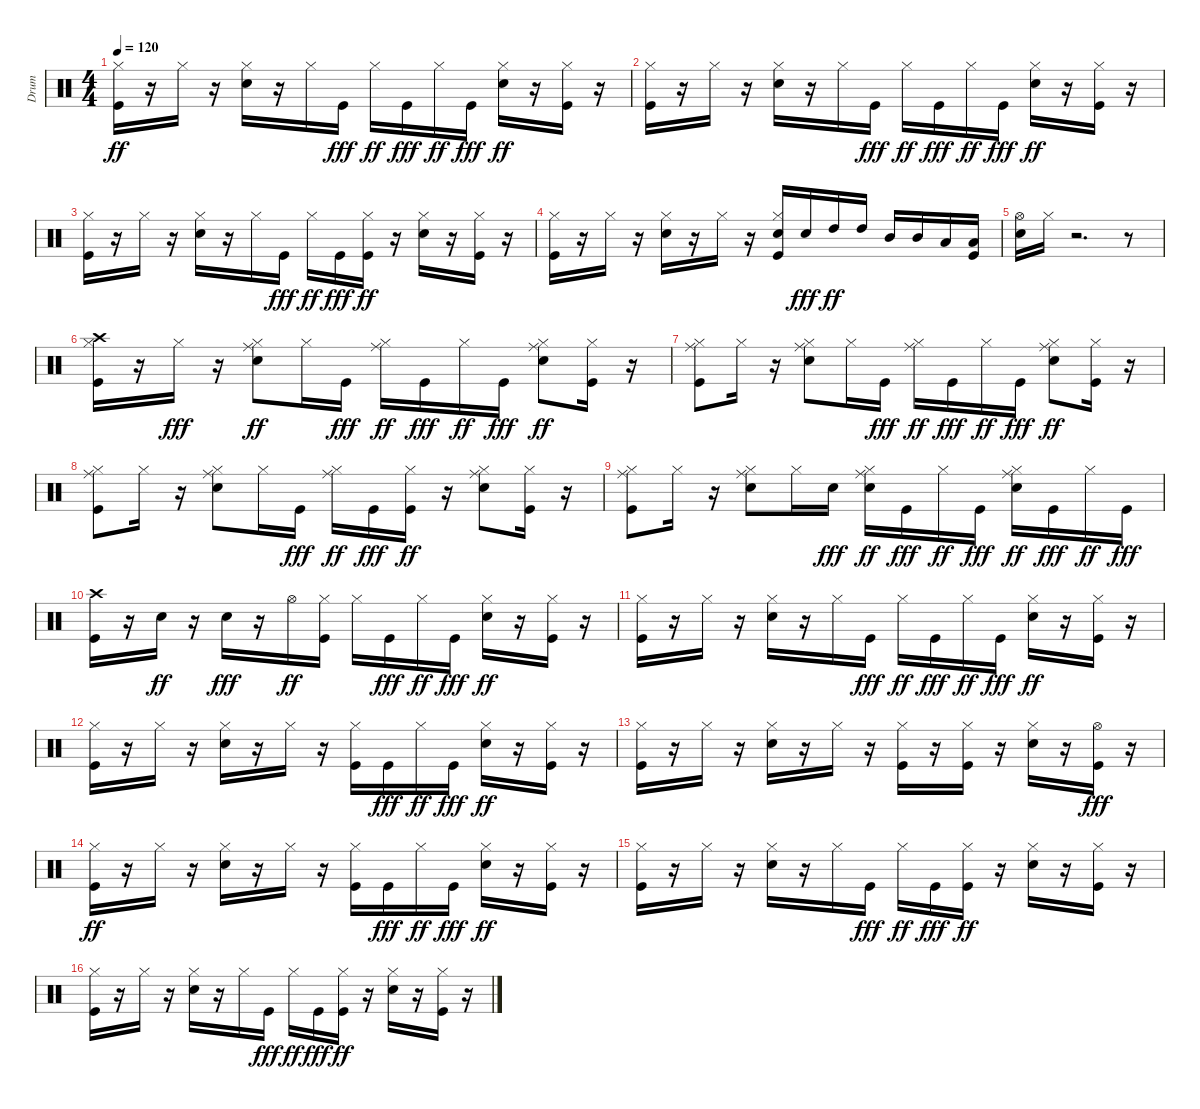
\track ("Drum" "Drum") {instrument percussion}
\staff {score}
\articulation defaults
\ts (4 4)
\tempo 120
\clef neutral
\ks c
("Kick (hit)" "Hi-Hat (closed)").16{dy ff} r.16 "Hi-Hat (closed)".16 r.16 ("Electric Snare (hit)" "Hi-Hat (closed)").16 r.16 "Hi-Hat (closed)".16 "Kick (hit)".16{dy fff} "Hi-Hat (closed)".16{dy ff} "Kick (hit)".16{dy fff} "Hi-Hat (closed)".16{dy ff} "Kick (hit)".16{dy fff} ("Electric Snare (hit)" "Hi-Hat (closed)").16{dy ff} r.16 ("Kick (hit)" "Hi-Hat (closed)").16 r.16 |
("Kick (hit)" "Hi-Hat (closed)").16 r.16 "Hi-Hat (closed)".16 r.16 ("Electric Snare (hit)" "Hi-Hat (closed)").16 r.16 "Hi-Hat (closed)".16 "Kick (hit)".16{dy fff} "Hi-Hat (closed)".16{dy ff} "Kick (hit)".16{dy fff} "Hi-Hat (closed)".16{dy ff} "Kick (hit)".16{dy fff} ("Electric Snare (hit)" "Hi-Hat (closed)").16{dy ff} r.16 ("Kick (hit)" "Hi-Hat (closed)").16 r.16 |
("Kick (hit)" "Hi-Hat (closed)").16 r.16 "Hi-Hat (closed)".16 r.16 ("Electric Snare (hit)" "Hi-Hat (closed)").16 r.16 "Hi-Hat (closed)".16 "Kick (hit)".16{dy fff} "Hi-Hat (closed)".16{dy ff} "Kick (hit)".16{dy fff} ("Kick (hit)" "Hi-Hat (closed)").16{dy ff} r.16 ("Electric Snare (hit)" "Hi-Hat (closed)").16 r.16 ("Kick (hit)" "Hi-Hat (closed)").16 r.16 |
("Kick (hit)" "Hi-Hat (closed)").16 r.16 "Hi-Hat (closed)".16 r.16 ("Electric Snare (hit)" "Hi-Hat (closed)").16 r.16 "Hi-Hat (closed)".16 r.16 ("Kick (hit)" "Electric Snare (hit)" "Hi-Hat (closed)").16 "Electric Snare (hit)".16{dy fff} "High Tom (hit)".16{dy ff} "High Tom (hit)".16 "Mid Tom (hit)".16 "Mid Tom (hit)".16 "Low Tom (hit)".16 ("Low Tom (hit)" "Kick (hit)").16 |
("Electric Snare (hit)" "Hi-Hat (open)").16 "Hi-Hat (closed)".16 r.2{d} r.8 |
("Crash high (hit)" "Kick (hit)" "Hi-Hat (closed)").16 r.16 "Hi-Hat (closed)".16{dy fff} r.16 ("Electric Snare (hit)" "Hi-Hat (closed)" "Ride (middle)").8{dy ff} "Hi-Hat (closed)".16 "Kick (hit)".16{dy fff} ("Hi-Hat (closed)" "Ride (middle)").16{dy ff} "Kick (hit)".16{dy fff} "Hi-Hat (closed)".16{dy ff} "Kick (hit)".16{dy fff} ("Electric Snare (hit)" "Hi-Hat (closed)" "Ride (middle)").8{dy ff} ("Kick (hit)" "Hi-Hat (closed)").16 r.16 |
("Kick (hit)" "Hi-Hat (closed)" "Ride (middle)").8 "Hi-Hat (closed)".16 r.16 ("Electric Snare (hit)" "Hi-Hat (closed)" "Ride (middle)").8 "Hi-Hat (closed)".16 "Kick (hit)".16{dy fff} ("Hi-Hat (closed)" "Ride (middle)").16{dy ff} "Kick (hit)".16{dy fff} "Hi-Hat (closed)".16{dy ff} "Kick (hit)".16{dy fff} ("Electric Snare (hit)" "Hi-Hat (closed)" "Ride (middle)").8{dy ff} ("Kick (hit)" "Hi-Hat (closed)").16 r.16 |
("Kick (hit)" "Hi-Hat (closed)" "Ride (middle)").8 "Hi-Hat (closed)".16 r.16 ("Electric Snare (hit)" "Hi-Hat (closed)" "Ride (middle)").8 "Hi-Hat (closed)".16 "Kick (hit)".16{dy fff} ("Hi-Hat (closed)" "Ride (middle)").16{dy ff} "Kick (hit)".16{dy fff} ("Kick (hit)" "Hi-Hat (closed)").16{dy ff} r.16 ("Electric Snare (hit)" "Hi-Hat (closed)" "Ride (middle)").8 ("Kick (hit)" "Hi-Hat (closed)").16 r.16 |
("Kick (hit)" "Hi-Hat (closed)" "Ride (middle)").8 "Hi-Hat (closed)".16 r.16 ("Electric Snare (hit)" "Hi-Hat (closed)" "Ride (middle)").8 "Hi-Hat (closed)".16 "Electric Snare (hit)".16{dy fff} ("Electric Snare (hit)" "Hi-Hat (closed)" "Ride (middle)").16{dy ff} "Kick (hit)".16{dy fff} "Hi-Hat (closed)".16{dy ff} "Kick (hit)".16{dy fff} ("Electric Snare (hit)" "Hi-Hat (closed)" "Ride (middle)").16{dy ff} "Kick (hit)".16{dy fff} "Hi-Hat (closed)".16{dy ff} "Kick (hit)".16{dy fff} |
("Crash high (hit)" "Kick (hit)").16 r.16 "Electric Snare (hit)".16{dy ff} r.16 "Electric Snare (hit)".16{dy fff} r.16 "Hi-Hat (open)".16{dy ff} ("Kick (hit)" "Hi-Hat (closed)").16 "Hi-Hat (closed)".16 "Kick (hit)".16{dy fff} "Hi-Hat (closed)".16{dy ff} "Kick (hit)".16{dy fff} ("Electric Snare (hit)" "Hi-Hat (closed)").16{dy ff} r.16 ("Kick (hit)" "Hi-Hat (closed)").16 r.16 |
("Kick (hit)" "Hi-Hat (closed)").16 r.16 "Hi-Hat (closed)".16 r.16 ("Electric Snare (hit)" "Hi-Hat (closed)").16 r.16 "Hi-Hat (closed)".16 "Kick (hit)".16{dy fff} "Hi-Hat (closed)".16{dy ff} "Kick (hit)".16{dy fff} "Hi-Hat (closed)".16{dy ff} "Kick (hit)".16{dy fff} ("Electric Snare (hit)" "Hi-Hat (closed)").16{dy ff} r.16 ("Kick (hit)" "Hi-Hat (closed)").16 r.16 |
("Kick (hit)" "Hi-Hat (closed)").16 r.16 "Hi-Hat (closed)".16 r.16 ("Electric Snare (hit)" "Hi-Hat (closed)").16 r.16 "Hi-Hat (closed)".16 r.16 ("Kick (hit)" "Hi-Hat (closed)").16 "Kick (hit)".16{dy fff} "Hi-Hat (closed)".16{dy ff} "Kick (hit)".16{dy fff} ("Electric Snare (hit)" "Hi-Hat (closed)").16{dy ff} r.16 ("Kick (hit)" "Hi-Hat (closed)").16 r.16 |
("Kick (hit)" "Hi-Hat (closed)").16 r.16 "Hi-Hat (closed)".16 r.16 ("Electric Snare (hit)" "Hi-Hat (closed)").16 r.16 "Hi-Hat (closed)".16 r.16 ("Kick (hit)" "Hi-Hat (closed)").16 r.16 ("Kick (hit)" "Hi-Hat (closed)").16 r.16 ("Electric Snare (hit)" "Hi-Hat (closed)").16 r.16 ("Hi-Hat (open)" "Kick (hit)").16{dy fff} r.16 |
("Kick (hit)" "Hi-Hat (closed)").16{dy ff} r.16 "Hi-Hat (closed)".16 r.16 ("Electric Snare (hit)" "Hi-Hat (closed)").16 r.16 "Hi-Hat (closed)".16 r.16 ("Kick (hit)" "Hi-Hat (closed)").16 "Kick (hit)".16{dy fff} "Hi-Hat (closed)".16{dy ff} "Kick (hit)".16{dy fff} ("Electric Snare (hit)" "Hi-Hat (closed)").16{dy ff} r.16 ("Kick (hit)" "Hi-Hat (closed)").16 r.16 |
("Kick (hit)" "Hi-Hat (closed)").16 r.16 "Hi-Hat (closed)".16 r.16 ("Electric Snare (hit)" "Hi-Hat (closed)").16 r.16 "Hi-Hat (closed)".16 "Kick (hit)".16{dy fff} "Hi-Hat (closed)".16{dy ff} "Kick (hit)".16{dy fff} ("Kick (hit)" "Hi-Hat (closed)").16{dy ff} r.16 ("Electric Snare (hit)" "Hi-Hat (closed)").16 r.16 ("Kick (hit)" "Hi-Hat (closed)").16 r.16 |
("Kick (hit)" "Hi-Hat (closed)").16 r.16 "Hi-Hat (closed)".16 r.16 ("Electric Snare (hit)" "Hi-Hat (closed)").16 r.16 "Hi-Hat (closed)".16 "Kick (hit)".16{dy fff} "Hi-Hat (closed)".16{dy ff} "Kick (hit)".16{dy fff} ("Kick (hit)" "Hi-Hat (closed)").16{dy ff} r.16 ("Electric Snare (hit)" "Hi-Hat (closed)").16 r.16 ("Kick (hit)" "Hi-Hat (closed)").16 r.16
